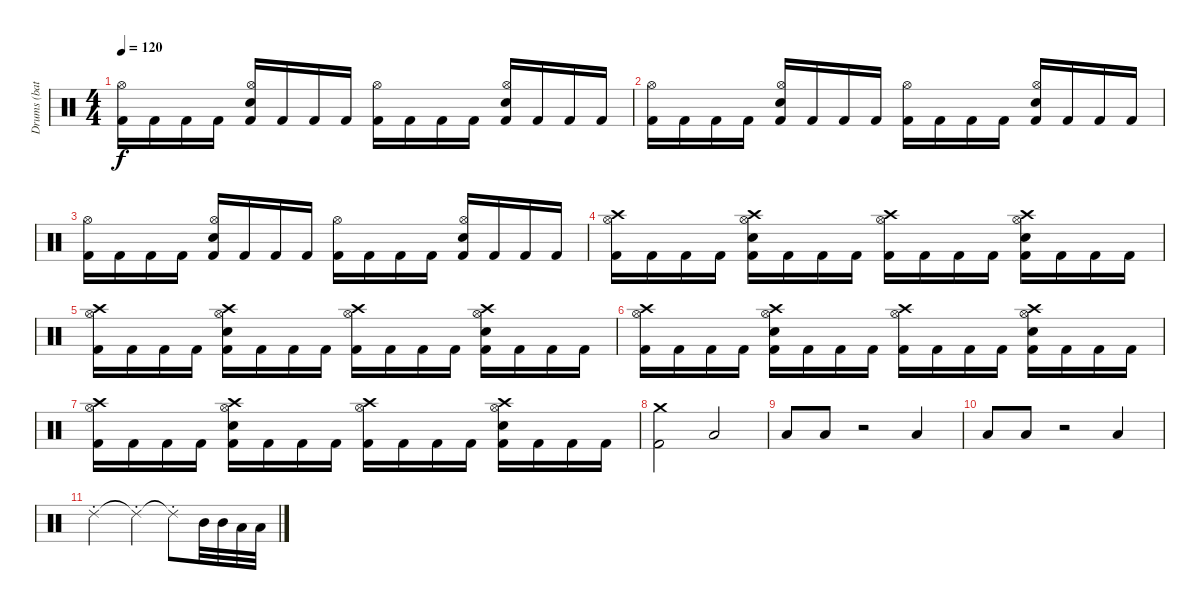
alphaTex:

\track ("Drums (bateria)" "Drums (bat") {instrument percussion}
\staff {score}
\articulation defaults
\ts (4 4)
\tempo 120
\clef neutral
\ks c
("Kick (hit) 2" "Hi-Hat (open)").16{dy f} "Kick (hit) 2".16 "Kick (hit) 2".16 "Kick (hit) 2".16 ("Kick (hit) 2" "Snare (hit) 2" "Hi-Hat (open)").16 "Kick (hit) 2".16 "Kick (hit) 2".16 "Kick (hit) 2".16 ("Kick (hit) 2" "Hi-Hat (open)").16 "Kick (hit) 2".16 "Kick (hit) 2".16 "Kick (hit) 2".16 ("Kick (hit) 2" "Snare (hit) 2" "Hi-Hat (open)").16 "Kick (hit) 2".16 "Kick (hit) 2".16 "Kick (hit) 2".16 |
("Kick (hit) 2" "Hi-Hat (open)").16 "Kick (hit) 2".16 "Kick (hit) 2".16 "Kick (hit) 2".16 ("Kick (hit) 2" "Snare (hit) 2" "Hi-Hat (open)").16 "Kick (hit) 2".16 "Kick (hit) 2".16 "Kick (hit) 2".16 ("Kick (hit) 2" "Hi-Hat (open)").16 "Kick (hit) 2".16 "Kick (hit) 2".16 "Kick (hit) 2".16 ("Kick (hit) 2" "Snare (hit) 2" "Hi-Hat (open)").16 "Kick (hit) 2".16 "Kick (hit) 2".16 "Kick (hit) 2".16 |
("Kick (hit) 2" "Hi-Hat (open)").16 "Kick (hit) 2".16 "Kick (hit) 2".16 "Kick (hit) 2".16 ("Kick (hit) 2" "Snare (hit) 2" "Hi-Hat (open)").16 "Kick (hit) 2".16 "Kick (hit) 2".16 "Kick (hit) 2".16 ("Kick (hit) 2" "Hi-Hat (open)").16 "Kick (hit) 2".16 "Kick (hit) 2".16 "Kick (hit) 2".16 ("Kick (hit) 2" "Snare (hit) 2" "Hi-Hat (open)").16 "Kick (hit) 2".16 "Kick (hit) 2".16 "Kick (hit) 2".16 |
("Kick (hit) 2" "Hi-Hat (open)" "Crash high (hit)").16 "Kick (hit) 2".16 "Kick (hit) 2".16 "Kick (hit) 2".16 ("Kick (hit) 2" "Snare (hit) 2" "Hi-Hat (open)" "Crash high (hit)").16 "Kick (hit) 2".16 "Kick (hit) 2".16 "Kick (hit) 2".16 ("Kick (hit) 2" "Hi-Hat (open)" "Crash high (hit)").16 "Kick (hit) 2".16 "Kick (hit) 2".16 "Kick (hit) 2".16 ("Kick (hit) 2" "Snare (hit) 2" "Hi-Hat (open)" "Crash high (hit)").16 "Kick (hit) 2".16 "Kick (hit) 2".16 "Kick (hit) 2".16 |
("Kick (hit) 2" "Hi-Hat (open)" "Crash high (hit)").16 "Kick (hit) 2".16 "Kick (hit) 2".16 "Kick (hit) 2".16 ("Kick (hit) 2" "Snare (hit) 2" "Hi-Hat (open)" "Crash high (hit)").16 "Kick (hit) 2".16 "Kick (hit) 2".16 "Kick (hit) 2".16 ("Kick (hit) 2" "Hi-Hat (open)" "Crash high (hit)").16 "Kick (hit) 2".16 "Kick (hit) 2".16 "Kick (hit) 2".16 ("Kick (hit) 2" "Snare (hit) 2" "Hi-Hat (open)" "Crash high (hit)").16 "Kick (hit) 2".16 "Kick (hit) 2".16 "Kick (hit) 2".16 |
("Kick (hit) 2" "Hi-Hat (open)" "Crash high (hit)").16 "Kick (hit) 2".16 "Kick (hit) 2".16 "Kick (hit) 2".16 ("Kick (hit) 2" "Snare (hit) 2" "Hi-Hat (open)" "Crash high (hit)").16 "Kick (hit) 2".16 "Kick (hit) 2".16 "Kick (hit) 2".16 ("Kick (hit) 2" "Hi-Hat (open)" "Crash high (hit)").16 "Kick (hit) 2".16 "Kick (hit) 2".16 "Kick (hit) 2".16 ("Kick (hit) 2" "Snare (hit) 2" "Hi-Hat (open)" "Crash high (hit)").16 "Kick (hit) 2".16 "Kick (hit) 2".16 "Kick (hit) 2".16 |
("Kick (hit) 2" "Hi-Hat (open)" "Crash high (hit)").16 "Kick (hit) 2".16 "Kick (hit) 2".16 "Kick (hit) 2".16 ("Kick (hit) 2" "Snare (hit) 2" "Hi-Hat (open)" "Crash high (hit)").16 "Kick (hit) 2".16 "Kick (hit) 2".16 "Kick (hit) 2".16 ("Kick (hit) 2" "Hi-Hat (open)" "Crash high (hit)").16 "Kick (hit) 2".16 "Kick (hit) 2".16 "Kick (hit) 2".16 ("Kick (hit) 2" "Snare (hit) 2" "Hi-Hat (open)" "Crash high (hit)").16 "Kick (hit) 2".16 "Kick (hit) 2".16 "Kick (hit) 2".16 |
("Kick (hit) 2" "Crash medium (hit)").2 "Low Tom (hit)".2 |
"Low Tom (hit)".8 "Low Tom (hit)".8 r.2 "Low Tom (hit)".4 |
"Low Tom (hit)".8 "Low Tom (hit)".8 r.2 "Low Tom (hit)".4 |
"Ride (choke) 2".2 "Ride (choke) 2"{t}.4 "Ride (choke) 2"{t}.8 "Mid Tom (hit)".32 "Mid Tom (hit)".32 "Low Tom (hit)".32 "Low Tom (hit)".32
